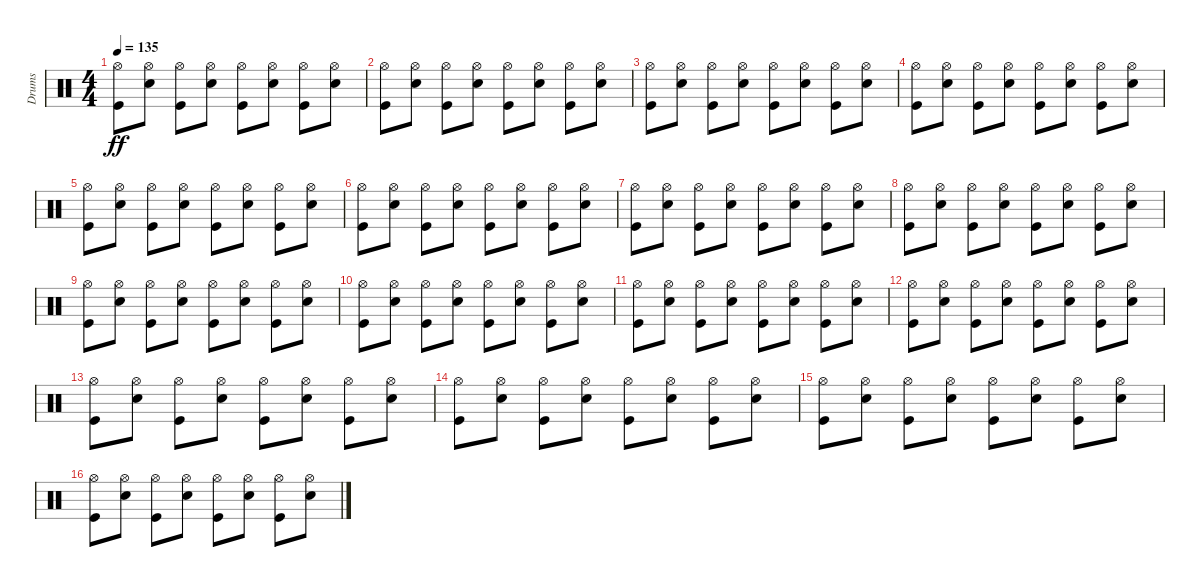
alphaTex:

\track ("Drums" "Drums") {instrument percussion}
\staff {score}
\articulation defaults
\ts (4 4)
\tempo 135
\clef neutral
\ks c
("Kick (hit)" "Hi-Hat (open)").8{dy ff} ("Electric Snare (hit)" "Hi-Hat (open)").8 ("Kick (hit)" "Hi-Hat (open)").8 ("Electric Snare (hit)" "Hi-Hat (open)").8 ("Kick (hit)" "Hi-Hat (open)").8 ("Electric Snare (hit)" "Hi-Hat (open)").8 ("Kick (hit)" "Hi-Hat (open)").8 ("Electric Snare (hit)" "Hi-Hat (open)").8 |
("Kick (hit)" "Hi-Hat (open)").8 ("Electric Snare (hit)" "Hi-Hat (open)").8 ("Kick (hit)" "Hi-Hat (open)").8 ("Electric Snare (hit)" "Hi-Hat (open)").8 ("Kick (hit)" "Hi-Hat (open)").8 ("Electric Snare (hit)" "Hi-Hat (open)").8 ("Kick (hit)" "Hi-Hat (open)").8 ("Electric Snare (hit)" "Hi-Hat (open)").8 |
("Kick (hit)" "Hi-Hat (open)").8 ("Electric Snare (hit)" "Hi-Hat (open)").8 ("Kick (hit)" "Hi-Hat (open)").8 ("Electric Snare (hit)" "Hi-Hat (open)").8 ("Kick (hit)" "Hi-Hat (open)").8 ("Electric Snare (hit)" "Hi-Hat (open)").8 ("Kick (hit)" "Hi-Hat (open)").8 ("Electric Snare (hit)" "Hi-Hat (open)").8 |
("Kick (hit)" "Hi-Hat (open)").8 ("Electric Snare (hit)" "Hi-Hat (open)").8 ("Kick (hit)" "Hi-Hat (open)").8 ("Electric Snare (hit)" "Hi-Hat (open)").8 ("Kick (hit)" "Hi-Hat (open)").8 ("Electric Snare (hit)" "Hi-Hat (open)").8 ("Kick (hit)" "Hi-Hat (open)").8 ("Electric Snare (hit)" "Hi-Hat (open)").8 |
("Kick (hit)" "Hi-Hat (open)").8 ("Electric Snare (hit)" "Hi-Hat (open)").8 ("Kick (hit)" "Hi-Hat (open)").8 ("Electric Snare (hit)" "Hi-Hat (open)").8 ("Kick (hit)" "Hi-Hat (open)").8 ("Electric Snare (hit)" "Hi-Hat (open)").8 ("Kick (hit)" "Hi-Hat (open)").8 ("Electric Snare (hit)" "Hi-Hat (open)").8 |
("Kick (hit)" "Hi-Hat (open)").8 ("Electric Snare (hit)" "Hi-Hat (open)").8 ("Kick (hit)" "Hi-Hat (open)").8 ("Electric Snare (hit)" "Hi-Hat (open)").8 ("Kick (hit)" "Hi-Hat (open)").8 ("Electric Snare (hit)" "Hi-Hat (open)").8 ("Kick (hit)" "Hi-Hat (open)").8 ("Electric Snare (hit)" "Hi-Hat (open)").8 |
("Kick (hit)" "Hi-Hat (open)").8 ("Electric Snare (hit)" "Hi-Hat (open)").8 ("Kick (hit)" "Hi-Hat (open)").8 ("Electric Snare (hit)" "Hi-Hat (open)").8 ("Kick (hit)" "Hi-Hat (open)").8 ("Electric Snare (hit)" "Hi-Hat (open)").8 ("Kick (hit)" "Hi-Hat (open)").8 ("Electric Snare (hit)" "Hi-Hat (open)").8 |
("Kick (hit)" "Hi-Hat (open)").8 ("Electric Snare (hit)" "Hi-Hat (open)").8 ("Kick (hit)" "Hi-Hat (open)").8 ("Electric Snare (hit)" "Hi-Hat (open)").8 ("Kick (hit)" "Hi-Hat (open)").8 ("Electric Snare (hit)" "Hi-Hat (open)").8 ("Kick (hit)" "Hi-Hat (open)").8 ("Electric Snare (hit)" "Hi-Hat (open)").8 |
("Kick (hit)" "Hi-Hat (open)").8 ("Electric Snare (hit)" "Hi-Hat (open)").8 ("Kick (hit)" "Hi-Hat (open)").8 ("Electric Snare (hit)" "Hi-Hat (open)").8 ("Kick (hit)" "Hi-Hat (open)").8 ("Electric Snare (hit)" "Hi-Hat (open)").8 ("Kick (hit)" "Hi-Hat (open)").8 ("Electric Snare (hit)" "Hi-Hat (open)").8 |
("Kick (hit)" "Hi-Hat (open)").8 ("Electric Snare (hit)" "Hi-Hat (open)").8 ("Kick (hit)" "Hi-Hat (open)").8 ("Electric Snare (hit)" "Hi-Hat (open)").8 ("Kick (hit)" "Hi-Hat (open)").8 ("Electric Snare (hit)" "Hi-Hat (open)").8 ("Kick (hit)" "Hi-Hat (open)").8 ("Electric Snare (hit)" "Hi-Hat (open)").8 |
("Kick (hit)" "Hi-Hat (open)").8 ("Electric Snare (hit)" "Hi-Hat (open)").8 ("Kick (hit)" "Hi-Hat (open)").8 ("Electric Snare (hit)" "Hi-Hat (open)").8 ("Kick (hit)" "Hi-Hat (open)").8 ("Electric Snare (hit)" "Hi-Hat (open)").8 ("Kick (hit)" "Hi-Hat (open)").8 ("Electric Snare (hit)" "Hi-Hat (open)").8 |
("Kick (hit)" "Hi-Hat (open)").8 ("Electric Snare (hit)" "Hi-Hat (open)").8 ("Kick (hit)" "Hi-Hat (open)").8 ("Electric Snare (hit)" "Hi-Hat (open)").8 ("Kick (hit)" "Hi-Hat (open)").8 ("Electric Snare (hit)" "Hi-Hat (open)").8 ("Kick (hit)" "Hi-Hat (open)").8 ("Electric Snare (hit)" "Hi-Hat (open)").8 |
("Kick (hit)" "Hi-Hat (open)").8 ("Electric Snare (hit)" "Hi-Hat (open)").8 ("Kick (hit)" "Hi-Hat (open)").8 ("Electric Snare (hit)" "Hi-Hat (open)").8 ("Kick (hit)" "Hi-Hat (open)").8 ("Electric Snare (hit)" "Hi-Hat (open)").8 ("Kick (hit)" "Hi-Hat (open)").8 ("Electric Snare (hit)" "Hi-Hat (open)").8 |
("Kick (hit)" "Hi-Hat (open)").8 ("Electric Snare (hit)" "Hi-Hat (open)").8 ("Kick (hit)" "Hi-Hat (open)").8 ("Electric Snare (hit)" "Hi-Hat (open)").8 ("Kick (hit)" "Hi-Hat (open)").8 ("Electric Snare (hit)" "Hi-Hat (open)").8 ("Kick (hit)" "Hi-Hat (open)").8 ("Electric Snare (hit)" "Hi-Hat (open)").8 |
("Kick (hit)" "Hi-Hat (open)").8 ("Electric Snare (hit)" "Hi-Hat (open)").8 ("Kick (hit)" "Hi-Hat (open)").8 ("Electric Snare (hit)" "Hi-Hat (open)").8 ("Kick (hit)" "Hi-Hat (open)").8 ("Electric Snare (hit)" "Hi-Hat (open)").8 ("Kick (hit)" "Hi-Hat (open)").8 ("Electric Snare (hit)" "Hi-Hat (open)").8 |
("Kick (hit)" "Hi-Hat (open)").8 ("Electric Snare (hit)" "Hi-Hat (open)").8 ("Kick (hit)" "Hi-Hat (open)").8 ("Electric Snare (hit)" "Hi-Hat (open)").8 ("Kick (hit)" "Hi-Hat (open)").8 ("Electric Snare (hit)" "Hi-Hat (open)").8 ("Kick (hit)" "Hi-Hat (open)").8 ("Electric Snare (hit)" "Hi-Hat (open)").8
